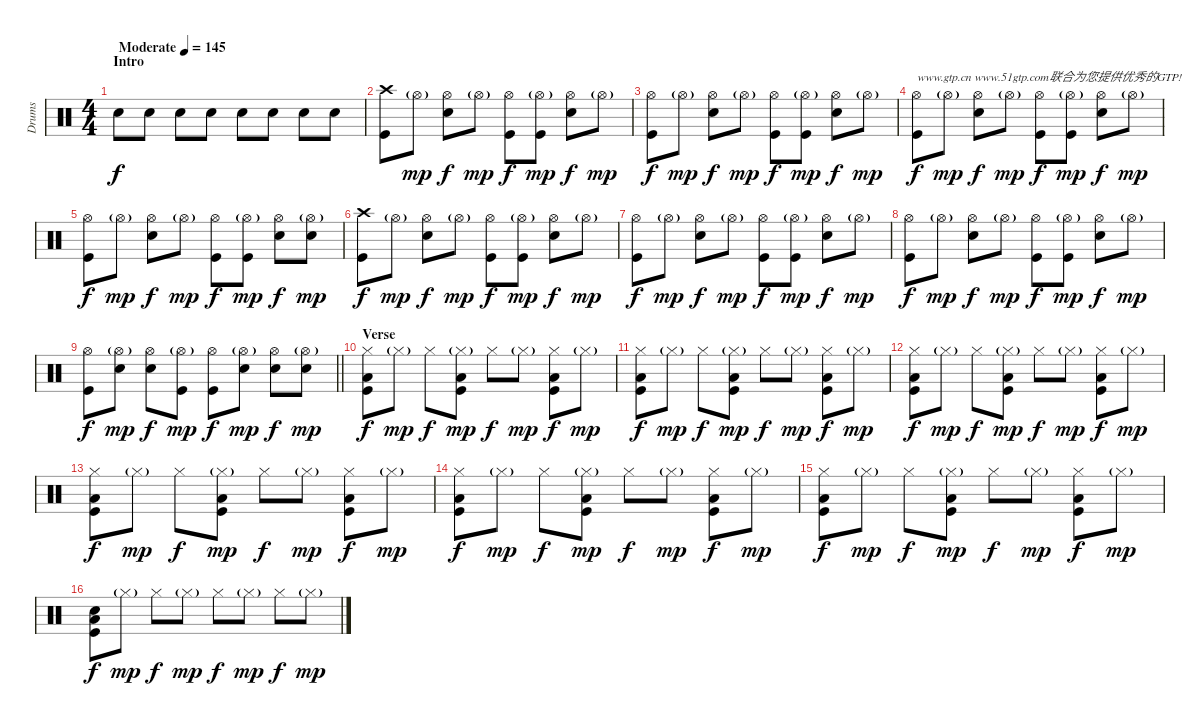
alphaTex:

\track ("Drums" "Drums") {instrument percussion}
\staff {score}
\articulation defaults
\ts (4 4)
\section ("" "Intro")
\tempo (145 "Moderate")
\clef neutral
\ks c "Snare (hit) 2".8{dy f} "Snare (hit) 2".8 "Snare (hit) 2".8 "Snare (hit) 2".8 "Snare (hit) 2".8 "Snare (hit) 2".8 "Snare (hit) 2".8 "Snare (hit) 2".8
|
("Crash high (hit)" "Kick (hit)").8 "Hi-Hat (open)"{g}.8{dy mp} ("Hi-Hat (open)" "Snare (hit) 2").8{dy f} "Hi-Hat (open)"{g}.8{dy mp} ("Hi-Hat (open)" "Kick (hit)").8{dy f} ("Hi-Hat (open)"{g} "Kick (hit)").8{dy mp} ("Hi-Hat (open)" "Snare (hit) 2").8{dy f} "Hi-Hat (open)"{g}.8{dy mp} |
("Hi-Hat (open)" "Kick (hit)").8{dy f} "Hi-Hat (open)"{g}.8{dy mp} ("Hi-Hat (open)" "Snare (hit) 2").8{dy f} "Hi-Hat (open)"{g}.8{dy mp} ("Hi-Hat (open)" "Kick (hit)").8{dy f} ("Hi-Hat (open)"{g} "Kick (hit)").8{dy mp} ("Hi-Hat (open)" "Snare (hit) 2").8{dy f} "Hi-Hat (open)"{g}.8{dy mp} |
("Hi-Hat (open)" "Kick (hit)").8{txt "www.gtp.cn www.51gtp.com联合为您提供优秀的GTP!" dy f} "Hi-Hat (open)"{g}.8{dy mp} ("Hi-Hat (open)" "Snare (hit) 2").8{dy f} "Hi-Hat (open)"{g}.8{dy mp} ("Hi-Hat (open)" "Kick (hit)").8{dy f} ("Hi-Hat (open)"{g} "Kick (hit)").8{dy mp} ("Hi-Hat (open)" "Snare (hit) 2").8{dy f} "Hi-Hat (open)"{g}.8{dy mp} |
("Hi-Hat (open)" "Kick (hit)").8{dy f} "Hi-Hat (open)"{g}.8{dy mp} ("Hi-Hat (open)" "Snare (hit) 2").8{dy f} "Hi-Hat (open)"{g}.8{dy mp} ("Hi-Hat (open)" "Kick (hit)").8{dy f} ("Hi-Hat (open)"{g} "Kick (hit)").8{dy mp} ("Hi-Hat (open)" "Snare (hit) 2").8{dy f} ("Hi-Hat (open)"{g} "Snare (hit) 2").8{dy mp} |
("Crash high (hit)" "Kick (hit)").8{dy f} "Hi-Hat (open)"{g}.8{dy mp} ("Hi-Hat (open)" "Snare (hit) 2").8{dy f} "Hi-Hat (open)"{g}.8{dy mp} ("Hi-Hat (open)" "Kick (hit)").8{dy f} ("Hi-Hat (open)"{g} "Kick (hit)").8{dy mp} ("Hi-Hat (open)" "Snare (hit) 2").8{dy f} "Hi-Hat (open)"{g}.8{dy mp} |
("Hi-Hat (open)" "Kick (hit)").8{dy f} "Hi-Hat (open)"{g}.8{dy mp} ("Hi-Hat (open)" "Snare (hit) 2").8{dy f} "Hi-Hat (open)"{g}.8{dy mp} ("Hi-Hat (open)" "Kick (hit)").8{dy f} ("Hi-Hat (open)"{g} "Kick (hit)").8{dy mp} ("Hi-Hat (open)" "Snare (hit) 2").8{dy f} "Hi-Hat (open)"{g}.8{dy mp} |
("Hi-Hat (open)" "Kick (hit)").8{dy f} "Hi-Hat (open)"{g}.8{dy mp} ("Hi-Hat (open)" "Snare (hit) 2").8{dy f} "Hi-Hat (open)"{g}.8{dy mp} ("Hi-Hat (open)" "Kick (hit)").8{dy f} ("Hi-Hat (open)"{g} "Kick (hit)").8{dy mp} ("Hi-Hat (open)" "Snare (hit) 2").8{dy f} "Hi-Hat (open)"{g}.8{dy mp} |
\barLineRight lightlight
("Hi-Hat (open)" "Kick (hit)").8{dy f} ("Hi-Hat (open)"{g} "Snare (hit) 2").8{dy mp} ("Hi-Hat (open)" "Snare (hit) 2").8{dy f} ("Hi-Hat (open)"{g} "Kick (hit)").8{dy mp} ("Hi-Hat (open)" "Kick (hit)").8{dy f} ("Hi-Hat (open)"{g} "Snare (hit) 2").8{dy mp} ("Hi-Hat (open)" "Snare (hit) 2").8{dy f} ("Hi-Hat (open)"{g} "Snare (hit) 2").8{dy mp} |
\section ("" "Verse")
("Hi-Hat (closed)" "Low Floor Tom (hit)" "Kick (hit)").8{dy f} "Hi-Hat (closed)"{g}.8{dy mp} "Hi-Hat (closed)".8{dy f} ("Hi-Hat (closed)"{g} "Low Floor Tom (hit)" "Kick (hit)").8{dy mp} "Hi-Hat (closed)".8{dy f} "Hi-Hat (closed)"{g}.8{dy mp} ("Hi-Hat (closed)" "Low Floor Tom (hit)" "Kick (hit)").8{dy f} "Hi-Hat (closed)"{g}.8{dy mp} |
("Hi-Hat (closed)" "Low Floor Tom (hit)" "Kick (hit)").8{dy f} "Hi-Hat (closed)"{g}.8{dy mp} "Hi-Hat (closed)".8{dy f} ("Hi-Hat (closed)"{g} "Low Floor Tom (hit)" "Kick (hit)").8{dy mp} "Hi-Hat (closed)".8{dy f} "Hi-Hat (closed)"{g}.8{dy mp} ("Hi-Hat (closed)" "Low Floor Tom (hit)" "Kick (hit)").8{dy f} "Hi-Hat (closed)"{g}.8{dy mp} |
("Hi-Hat (closed)" "Low Floor Tom (hit)" "Kick (hit)").8{dy f} "Hi-Hat (closed)"{g}.8{dy mp} "Hi-Hat (closed)".8{dy f} ("Hi-Hat (closed)"{g} "Low Floor Tom (hit)" "Kick (hit)").8{dy mp} "Hi-Hat (closed)".8{dy f} "Hi-Hat (closed)"{g}.8{dy mp} ("Hi-Hat (closed)" "Low Floor Tom (hit)" "Kick (hit)").8{dy f} "Hi-Hat (closed)"{g}.8{dy mp} |
("Hi-Hat (closed)" "Low Floor Tom (hit)" "Kick (hit)").8{dy f} "Hi-Hat (closed)"{g}.8{dy mp} "Hi-Hat (closed)".8{dy f} ("Hi-Hat (closed)"{g} "Low Floor Tom (hit)" "Kick (hit)").8{dy mp} "Hi-Hat (closed)".8{dy f} "Hi-Hat (closed)"{g}.8{dy mp} ("Hi-Hat (closed)" "Low Floor Tom (hit)" "Kick (hit)").8{dy f} "Hi-Hat (closed)"{g}.8{dy mp} |
("Hi-Hat (closed)" "Low Floor Tom (hit)" "Kick (hit)").8{dy f} "Hi-Hat (closed)"{g}.8{dy mp} "Hi-Hat (closed)".8{dy f} ("Hi-Hat (closed)"{g} "Low Floor Tom (hit)" "Kick (hit)").8{dy mp} "Hi-Hat (closed)".8{dy f} "Hi-Hat (closed)"{g}.8{dy mp} ("Hi-Hat (closed)" "Low Floor Tom (hit)" "Kick (hit)").8{dy f} "Hi-Hat (closed)"{g}.8{dy mp} |
("Hi-Hat (closed)" "Low Floor Tom (hit)" "Kick (hit)").8{dy f} "Hi-Hat (closed)"{g}.8{dy mp} "Hi-Hat (closed)".8{dy f} ("Hi-Hat (closed)"{g} "Low Floor Tom (hit)" "Kick (hit)").8{dy mp} "Hi-Hat (closed)".8{dy f} "Hi-Hat (closed)"{g}.8{dy mp} ("Hi-Hat (closed)" "Low Floor Tom (hit)" "Kick (hit)").8{dy f} "Hi-Hat (closed)"{g}.8{dy mp} |
("Snare (hit) 2" "Low Floor Tom (hit)" "Kick (hit)").8{dy f} "Hi-Hat (closed)"{g}.8{dy mp} "Hi-Hat (closed)".8{dy f} "Hi-Hat (closed)"{g}.8{dy mp} "Hi-Hat (closed)".8{dy f} "Hi-Hat (closed)"{g}.8{dy mp} "Hi-Hat (closed)".8{dy f} "Hi-Hat (closed)"{g}.8{dy mp}
